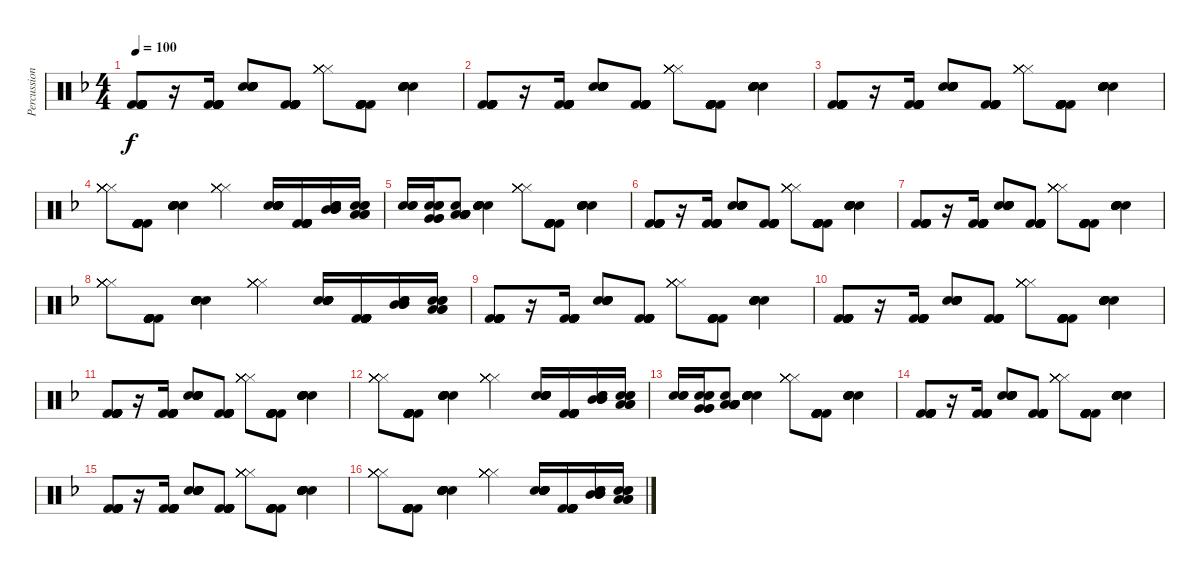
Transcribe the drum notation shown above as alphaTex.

\track ("Percussion" "Percussion") {instrument percussion}
\staff {score}
\articulation defaults
\ts (4 4)
\tempo 100
\clef neutral
\ks dminor
("Kick (hit) 2" "Kick (hit) 2" "Kick (hit) 2" "Kick (hit) 2" "Kick (hit) 2" "Kick (hit) 2").8{dy f} r.16 ("Kick (hit) 2" "Kick (hit) 2" "Kick (hit) 2" "Kick (hit) 2" "Kick (hit) 2" "Kick (hit) 2").16 ("Electric Snare (hit)" "Electric Snare (hit)" "Electric Snare (hit)" "Electric Snare (hit)" "Electric Snare (hit)" "Electric Snare (hit)").8 ("Kick (hit) 2" "Kick (hit) 2" "Kick (hit) 2" "Kick (hit) 2" "Kick (hit) 2" "Kick (hit) 2").8 ("Hi-Hat (closed)" "Hi-Hat (closed)" "Hi-Hat (closed)" "Hi-Hat (closed)" "Hi-Hat (closed)" "Hi-Hat (closed)").8 ("Kick (hit) 2" "Kick (hit) 2" "Kick (hit) 2" "Kick (hit) 2" "Kick (hit) 2" "Kick (hit) 2").8 ("Electric Snare (hit)" "Electric Snare (hit)" "Electric Snare (hit)" "Electric Snare (hit)" "Electric Snare (hit)" "Electric Snare (hit)").4 |
("Kick (hit) 2" "Kick (hit) 2" "Kick (hit) 2" "Kick (hit) 2" "Kick (hit) 2" "Kick (hit) 2").8 r.16 ("Kick (hit) 2" "Kick (hit) 2" "Kick (hit) 2" "Kick (hit) 2" "Kick (hit) 2" "Kick (hit) 2").16 ("Electric Snare (hit)" "Electric Snare (hit)" "Electric Snare (hit)" "Electric Snare (hit)" "Electric Snare (hit)" "Electric Snare (hit)").8 ("Kick (hit) 2" "Kick (hit) 2" "Kick (hit) 2" "Kick (hit) 2" "Kick (hit) 2" "Kick (hit) 2").8 ("Hi-Hat (closed)" "Hi-Hat (closed)" "Hi-Hat (closed)" "Hi-Hat (closed)" "Hi-Hat (closed)" "Hi-Hat (closed)").8 ("Kick (hit) 2" "Kick (hit) 2" "Kick (hit) 2" "Kick (hit) 2" "Kick (hit) 2" "Kick (hit) 2").8 ("Electric Snare (hit)" "Electric Snare (hit)" "Electric Snare (hit)" "Electric Snare (hit)" "Electric Snare (hit)" "Electric Snare (hit)").4 |
("Kick (hit) 2" "Kick (hit) 2" "Kick (hit) 2" "Kick (hit) 2" "Kick (hit) 2" "Kick (hit) 2").8 r.16 ("Kick (hit) 2" "Kick (hit) 2" "Kick (hit) 2" "Kick (hit) 2" "Kick (hit) 2" "Kick (hit) 2").16 ("Electric Snare (hit)" "Electric Snare (hit)" "Electric Snare (hit)" "Electric Snare (hit)" "Electric Snare (hit)" "Electric Snare (hit)").8 ("Kick (hit) 2" "Kick (hit) 2" "Kick (hit) 2" "Kick (hit) 2" "Kick (hit) 2" "Kick (hit) 2").8 ("Hi-Hat (closed)" "Hi-Hat (closed)" "Hi-Hat (closed)" "Hi-Hat (closed)" "Hi-Hat (closed)" "Hi-Hat (closed)").8 ("Kick (hit) 2" "Kick (hit) 2" "Kick (hit) 2" "Kick (hit) 2" "Kick (hit) 2" "Kick (hit) 2").8 ("Electric Snare (hit)" "Electric Snare (hit)" "Electric Snare (hit)" "Electric Snare (hit)" "Electric Snare (hit)" "Electric Snare (hit)").4 |
("Hi-Hat (closed)" "Hi-Hat (closed)" "Hi-Hat (closed)" "Hi-Hat (closed)" "Hi-Hat (closed)" "Hi-Hat (closed)").8 ("Kick (hit) 2" "Kick (hit) 2" "Kick (hit) 2" "Kick (hit) 2" "Kick (hit) 2" "Kick (hit) 2").8 ("Electric Snare (hit)" "Electric Snare (hit)" "Electric Snare (hit)" "Electric Snare (hit)" "Electric Snare (hit)" "Electric Snare (hit)").4 ("Hi-Hat (closed)" "Hi-Hat (closed)" "Hi-Hat (closed)" "Hi-Hat (closed)" "Hi-Hat (closed)" "Hi-Hat (closed)").4 ("Electric Snare (hit)" "Electric Snare (hit)" "Electric Snare (hit)" "Electric Snare (hit)" "Electric Snare (hit)" "Electric Snare (hit)").16 ("Kick (hit) 2" "Kick (hit) 2" "Kick (hit) 2" "Kick (hit) 2" "Kick (hit) 2" "Kick (hit) 2").16 ("Mid Tom (hit)" "Electric Snare (hit)" "Mid Tom (hit)" "Electric Snare (hit)" "Mid Tom (hit)" "Electric Snare (hit)").16 ("Low Tom (hit)" "Electric Snare (hit)" "Low Tom (hit)" "Electric Snare (hit)" "Low Tom (hit)" "Electric Snare (hit)").16 |
("Electric Snare (hit)" "Electric Snare (hit)" "Electric Snare (hit)").16 ("Very Low Tom (hit)" "Electric Snare (hit)" "Very Low Tom (hit)" "Electric Snare (hit)" "Very Low Tom (hit)" "Electric Snare (hit)").16 ("Low Floor Tom (hit)" "Low Floor Tom (hit)" "Low Floor Tom (hit)" "Low Floor Tom (hit)" "Low Floor Tom (hit)" "Electric Snare (hit)").8 ("Electric Snare (hit)" "Electric Snare (hit)" "Electric Snare (hit)" "Electric Snare (hit)" "Electric Snare (hit)" "Electric Snare (hit)").4 ("Hi-Hat (closed)" "Hi-Hat (closed)" "Hi-Hat (closed)" "Hi-Hat (closed)" "Hi-Hat (closed)" "Hi-Hat (closed)").8 ("Kick (hit) 2" "Kick (hit) 2" "Kick (hit) 2" "Kick (hit) 2" "Kick (hit) 2" "Kick (hit) 2").8 ("Electric Snare (hit)" "Electric Snare (hit)" "Electric Snare (hit)" "Electric Snare (hit)" "Electric Snare (hit)" "Electric Snare (hit)").4 |
("Kick (hit) 2" "Kick (hit) 2" "Kick (hit) 2" "Kick (hit) 2" "Kick (hit) 2" "Kick (hit) 2").8 r.16 ("Kick (hit) 2" "Kick (hit) 2" "Kick (hit) 2" "Kick (hit) 2" "Kick (hit) 2" "Kick (hit) 2").16 ("Electric Snare (hit)" "Electric Snare (hit)" "Electric Snare (hit)" "Electric Snare (hit)" "Electric Snare (hit)" "Electric Snare (hit)").8 ("Kick (hit) 2" "Kick (hit) 2" "Kick (hit) 2" "Kick (hit) 2" "Kick (hit) 2" "Kick (hit) 2").8 ("Hi-Hat (closed)" "Hi-Hat (closed)" "Hi-Hat (closed)" "Hi-Hat (closed)" "Hi-Hat (closed)" "Hi-Hat (closed)").8 ("Kick (hit) 2" "Kick (hit) 2" "Kick (hit) 2" "Kick (hit) 2" "Kick (hit) 2" "Kick (hit) 2").8 ("Electric Snare (hit)" "Electric Snare (hit)" "Electric Snare (hit)" "Electric Snare (hit)" "Electric Snare (hit)" "Electric Snare (hit)").4 |
("Kick (hit) 2" "Kick (hit) 2" "Kick (hit) 2" "Kick (hit) 2" "Kick (hit) 2" "Kick (hit) 2").8 r.16 ("Kick (hit) 2" "Kick (hit) 2" "Kick (hit) 2" "Kick (hit) 2" "Kick (hit) 2" "Kick (hit) 2").16 ("Electric Snare (hit)" "Electric Snare (hit)" "Electric Snare (hit)" "Electric Snare (hit)" "Electric Snare (hit)" "Electric Snare (hit)").8 ("Kick (hit) 2" "Kick (hit) 2" "Kick (hit) 2" "Kick (hit) 2" "Kick (hit) 2" "Kick (hit) 2").8 ("Hi-Hat (closed)" "Hi-Hat (closed)" "Hi-Hat (closed)" "Hi-Hat (closed)" "Hi-Hat (closed)" "Hi-Hat (closed)").8 ("Kick (hit) 2" "Kick (hit) 2" "Kick (hit) 2" "Kick (hit) 2" "Kick (hit) 2" "Kick (hit) 2").8 ("Electric Snare (hit)" "Electric Snare (hit)" "Electric Snare (hit)" "Electric Snare (hit)" "Electric Snare (hit)" "Electric Snare (hit)").4 |
("Hi-Hat (closed)" "Hi-Hat (closed)" "Hi-Hat (closed)" "Hi-Hat (closed)" "Hi-Hat (closed)" "Hi-Hat (closed)").8 ("Kick (hit) 2" "Kick (hit) 2" "Kick (hit) 2" "Kick (hit) 2" "Kick (hit) 2" "Kick (hit) 2").8 ("Electric Snare (hit)" "Electric Snare (hit)" "Electric Snare (hit)" "Electric Snare (hit)" "Electric Snare (hit)" "Electric Snare (hit)").4 ("Hi-Hat (closed)" "Hi-Hat (closed)" "Hi-Hat (closed)" "Hi-Hat (closed)" "Hi-Hat (closed)" "Hi-Hat (closed)").4 ("Electric Snare (hit)" "Electric Snare (hit)" "Electric Snare (hit)" "Electric Snare (hit)" "Electric Snare (hit)" "Electric Snare (hit)").16 ("Kick (hit) 2" "Kick (hit) 2" "Kick (hit) 2" "Kick (hit) 2" "Kick (hit) 2" "Kick (hit) 2").16 ("Mid Tom (hit)" "Electric Snare (hit)" "Mid Tom (hit)" "Electric Snare (hit)" "Mid Tom (hit)" "Electric Snare (hit)").16 ("Low Tom (hit)" "Electric Snare (hit)" "Low Tom (hit)" "Electric Snare (hit)" "Low Tom (hit)" "Electric Snare (hit)").16 |
("Kick (hit) 2" "Kick (hit) 2" "Kick (hit) 2" "Kick (hit) 2" "Kick (hit) 2" "Kick (hit) 2").8 r.16 ("Kick (hit) 2" "Kick (hit) 2" "Kick (hit) 2" "Kick (hit) 2" "Kick (hit) 2" "Kick (hit) 2").16 ("Electric Snare (hit)" "Electric Snare (hit)" "Electric Snare (hit)" "Electric Snare (hit)" "Electric Snare (hit)" "Electric Snare (hit)").8 ("Kick (hit) 2" "Kick (hit) 2" "Kick (hit) 2" "Kick (hit) 2" "Kick (hit) 2" "Kick (hit) 2").8 ("Hi-Hat (closed)" "Hi-Hat (closed)" "Hi-Hat (closed)" "Hi-Hat (closed)" "Hi-Hat (closed)" "Hi-Hat (closed)").8 ("Kick (hit) 2" "Kick (hit) 2" "Kick (hit) 2" "Kick (hit) 2" "Kick (hit) 2" "Kick (hit) 2").8 ("Electric Snare (hit)" "Electric Snare (hit)" "Electric Snare (hit)" "Electric Snare (hit)" "Electric Snare (hit)" "Electric Snare (hit)").4 |
("Kick (hit) 2" "Kick (hit) 2" "Kick (hit) 2" "Kick (hit) 2" "Kick (hit) 2" "Kick (hit) 2").8 r.16 ("Kick (hit) 2" "Kick (hit) 2" "Kick (hit) 2" "Kick (hit) 2" "Kick (hit) 2" "Kick (hit) 2").16 ("Electric Snare (hit)" "Electric Snare (hit)" "Electric Snare (hit)" "Electric Snare (hit)" "Electric Snare (hit)" "Electric Snare (hit)").8 ("Kick (hit) 2" "Kick (hit) 2" "Kick (hit) 2" "Kick (hit) 2" "Kick (hit) 2" "Kick (hit) 2").8 ("Hi-Hat (closed)" "Hi-Hat (closed)" "Hi-Hat (closed)" "Hi-Hat (closed)" "Hi-Hat (closed)" "Hi-Hat (closed)").8 ("Kick (hit) 2" "Kick (hit) 2" "Kick (hit) 2" "Kick (hit) 2" "Kick (hit) 2" "Kick (hit) 2").8 ("Electric Snare (hit)" "Electric Snare (hit)" "Electric Snare (hit)" "Electric Snare (hit)" "Electric Snare (hit)" "Electric Snare (hit)").4 |
("Kick (hit) 2" "Kick (hit) 2" "Kick (hit) 2" "Kick (hit) 2" "Kick (hit) 2" "Kick (hit) 2").8 r.16 ("Kick (hit) 2" "Kick (hit) 2" "Kick (hit) 2" "Kick (hit) 2" "Kick (hit) 2" "Kick (hit) 2").16 ("Electric Snare (hit)" "Electric Snare (hit)" "Electric Snare (hit)" "Electric Snare (hit)" "Electric Snare (hit)" "Electric Snare (hit)").8 ("Kick (hit) 2" "Kick (hit) 2" "Kick (hit) 2" "Kick (hit) 2" "Kick (hit) 2" "Kick (hit) 2").8 ("Hi-Hat (closed)" "Hi-Hat (closed)" "Hi-Hat (closed)" "Hi-Hat (closed)" "Hi-Hat (closed)" "Hi-Hat (closed)").8 ("Kick (hit) 2" "Kick (hit) 2" "Kick (hit) 2" "Kick (hit) 2" "Kick (hit) 2" "Kick (hit) 2").8 ("Electric Snare (hit)" "Electric Snare (hit)" "Electric Snare (hit)" "Electric Snare (hit)" "Electric Snare (hit)" "Electric Snare (hit)").4 |
("Hi-Hat (closed)" "Hi-Hat (closed)" "Hi-Hat (closed)" "Hi-Hat (closed)" "Hi-Hat (closed)" "Hi-Hat (closed)").8 ("Kick (hit) 2" "Kick (hit) 2" "Kick (hit) 2" "Kick (hit) 2" "Kick (hit) 2" "Kick (hit) 2").8 ("Electric Snare (hit)" "Electric Snare (hit)" "Electric Snare (hit)" "Electric Snare (hit)" "Electric Snare (hit)" "Electric Snare (hit)").4 ("Hi-Hat (closed)" "Hi-Hat (closed)" "Hi-Hat (closed)" "Hi-Hat (closed)" "Hi-Hat (closed)" "Hi-Hat (closed)").4 ("Electric Snare (hit)" "Electric Snare (hit)" "Electric Snare (hit)" "Electric Snare (hit)" "Electric Snare (hit)" "Electric Snare (hit)").16 ("Kick (hit) 2" "Kick (hit) 2" "Kick (hit) 2" "Kick (hit) 2" "Kick (hit) 2" "Kick (hit) 2").16 ("Mid Tom (hit)" "Electric Snare (hit)" "Mid Tom (hit)" "Electric Snare (hit)" "Mid Tom (hit)" "Electric Snare (hit)").16 ("Low Tom (hit)" "Electric Snare (hit)" "Low Tom (hit)" "Electric Snare (hit)" "Low Tom (hit)" "Electric Snare (hit)").16 |
("Electric Snare (hit)" "Electric Snare (hit)" "Electric Snare (hit)").16 ("Very Low Tom (hit)" "Electric Snare (hit)" "Very Low Tom (hit)" "Electric Snare (hit)" "Very Low Tom (hit)" "Electric Snare (hit)").16 ("Low Floor Tom (hit)" "Low Floor Tom (hit)" "Low Floor Tom (hit)" "Low Floor Tom (hit)" "Low Floor Tom (hit)" "Electric Snare (hit)").8 ("Electric Snare (hit)" "Electric Snare (hit)" "Electric Snare (hit)" "Electric Snare (hit)" "Electric Snare (hit)" "Electric Snare (hit)").4 ("Hi-Hat (closed)" "Hi-Hat (closed)" "Hi-Hat (closed)" "Hi-Hat (closed)" "Hi-Hat (closed)" "Hi-Hat (closed)").8 ("Kick (hit) 2" "Kick (hit) 2" "Kick (hit) 2" "Kick (hit) 2" "Kick (hit) 2" "Kick (hit) 2").8 ("Electric Snare (hit)" "Electric Snare (hit)" "Electric Snare (hit)" "Electric Snare (hit)" "Electric Snare (hit)" "Electric Snare (hit)").4 |
("Kick (hit) 2" "Kick (hit) 2" "Kick (hit) 2" "Kick (hit) 2" "Kick (hit) 2" "Kick (hit) 2").8 r.16 ("Kick (hit) 2" "Kick (hit) 2" "Kick (hit) 2" "Kick (hit) 2" "Kick (hit) 2" "Kick (hit) 2").16 ("Electric Snare (hit)" "Electric Snare (hit)" "Electric Snare (hit)" "Electric Snare (hit)" "Electric Snare (hit)" "Electric Snare (hit)").8 ("Kick (hit) 2" "Kick (hit) 2" "Kick (hit) 2" "Kick (hit) 2" "Kick (hit) 2" "Kick (hit) 2").8 ("Hi-Hat (closed)" "Hi-Hat (closed)" "Hi-Hat (closed)" "Hi-Hat (closed)" "Hi-Hat (closed)" "Hi-Hat (closed)").8 ("Kick (hit) 2" "Kick (hit) 2" "Kick (hit) 2" "Kick (hit) 2" "Kick (hit) 2" "Kick (hit) 2").8 ("Electric Snare (hit)" "Electric Snare (hit)" "Electric Snare (hit)" "Electric Snare (hit)" "Electric Snare (hit)" "Electric Snare (hit)").4 |
("Kick (hit) 2" "Kick (hit) 2" "Kick (hit) 2" "Kick (hit) 2" "Kick (hit) 2" "Kick (hit) 2").8 r.16 ("Kick (hit) 2" "Kick (hit) 2" "Kick (hit) 2" "Kick (hit) 2" "Kick (hit) 2" "Kick (hit) 2").16 ("Electric Snare (hit)" "Electric Snare (hit)" "Electric Snare (hit)" "Electric Snare (hit)" "Electric Snare (hit)" "Electric Snare (hit)").8 ("Kick (hit) 2" "Kick (hit) 2" "Kick (hit) 2" "Kick (hit) 2" "Kick (hit) 2" "Kick (hit) 2").8 ("Hi-Hat (closed)" "Hi-Hat (closed)" "Hi-Hat (closed)" "Hi-Hat (closed)" "Hi-Hat (closed)" "Hi-Hat (closed)").8 ("Kick (hit) 2" "Kick (hit) 2" "Kick (hit) 2" "Kick (hit) 2" "Kick (hit) 2" "Kick (hit) 2").8 ("Electric Snare (hit)" "Electric Snare (hit)" "Electric Snare (hit)" "Electric Snare (hit)" "Electric Snare (hit)" "Electric Snare (hit)").4 |
("Hi-Hat (closed)" "Hi-Hat (closed)" "Hi-Hat (closed)" "Hi-Hat (closed)" "Hi-Hat (closed)" "Hi-Hat (closed)").8 ("Kick (hit) 2" "Kick (hit) 2" "Kick (hit) 2" "Kick (hit) 2" "Kick (hit) 2" "Kick (hit) 2").8 ("Electric Snare (hit)" "Electric Snare (hit)" "Electric Snare (hit)" "Electric Snare (hit)" "Electric Snare (hit)" "Electric Snare (hit)").4 ("Hi-Hat (closed)" "Hi-Hat (closed)" "Hi-Hat (closed)" "Hi-Hat (closed)" "Hi-Hat (closed)" "Hi-Hat (closed)").4 ("Electric Snare (hit)" "Electric Snare (hit)" "Electric Snare (hit)" "Electric Snare (hit)" "Electric Snare (hit)" "Electric Snare (hit)").16 ("Kick (hit) 2" "Kick (hit) 2" "Kick (hit) 2" "Kick (hit) 2" "Kick (hit) 2" "Kick (hit) 2").16 ("Mid Tom (hit)" "Electric Snare (hit)" "Mid Tom (hit)" "Electric Snare (hit)" "Mid Tom (hit)" "Electric Snare (hit)").16 ("Low Tom (hit)" "Electric Snare (hit)" "Low Tom (hit)" "Electric Snare (hit)" "Low Tom (hit)" "Electric Snare (hit)").16
